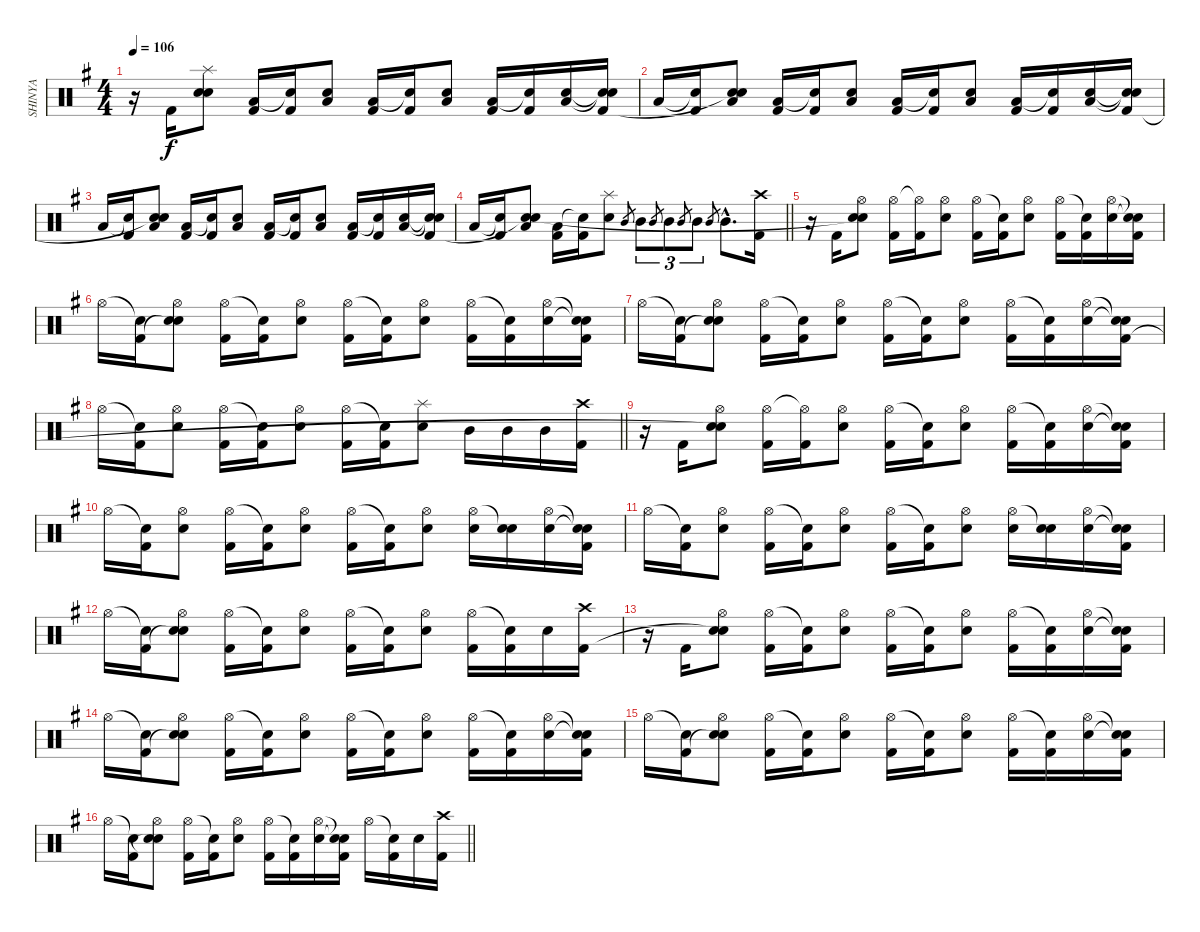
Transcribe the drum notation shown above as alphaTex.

\track ("SHINYA" "SHINYA") {instrument percussion}
\staff {score}
\articulation defaults
\ts (4 4)
\tempo 106
\clef neutral
\ks g
r.16{dy f} "Kick (hit) 2".16 ("Splash (hit)" "Electric Snare (hit)" "Snare (hit)"{t}).8 ("Low Floor Tom (hit)" "Kick (hit) 2").16 ("Snare (hit)"{t} "Kick (hit) 2").16 ("Low Floor Tom (hit)" "Electric Snare (hit)").8 ("Low Floor Tom (hit)" "Kick (hit) 2").16 ("Snare (hit)"{t} "Kick (hit) 2").16 ("Low Floor Tom (hit)" "Electric Snare (hit)").8 ("Low Floor Tom (hit)" "Kick (hit) 2").16 ("Snare (hit)"{t} "Kick (hit) 2").16 ("Low Floor Tom (hit)" "Electric Snare (hit)").16 ("Snare (hit)"{t} "Snare (hit)"{t} "Kick (hit) 2").16 |
"Low Floor Tom (hit)".16 ("Snare (hit)"{t} "Kick (hit) 2").16 ("Low Floor Tom (hit)" "Electric Snare (hit)" "Snare (hit)"{t}).8 ("Low Floor Tom (hit)" "Kick (hit) 2").16 ("Snare (hit)"{t} "Kick (hit) 2").16 ("Low Floor Tom (hit)" "Electric Snare (hit)").8 ("Low Floor Tom (hit)" "Kick (hit) 2").16 ("Snare (hit)"{t} "Kick (hit) 2").16 ("Low Floor Tom (hit)" "Electric Snare (hit)").8 ("Low Floor Tom (hit)" "Kick (hit) 2").16 ("Snare (hit)"{t} "Kick (hit) 2").16 ("Low Floor Tom (hit)" "Electric Snare (hit)").16 ("Snare (hit)"{t} "Snare (hit)"{t} "Kick (hit) 2").16 |
"Low Floor Tom (hit)".16 ("Snare (hit)"{t} "Kick (hit) 2").16 ("Low Floor Tom (hit)" "Electric Snare (hit)" "Snare (hit)"{t}).8 ("Low Floor Tom (hit)" "Kick (hit) 2").16 ("Snare (hit)"{t} "Kick (hit) 2").16 ("Low Floor Tom (hit)" "Electric Snare (hit)").8 ("Low Floor Tom (hit)" "Kick (hit) 2").16 ("Snare (hit)"{t} "Kick (hit) 2").16 ("Low Floor Tom (hit)" "Electric Snare (hit)").8 ("Low Floor Tom (hit)" "Kick (hit) 2").16 ("Snare (hit)"{t} "Kick (hit) 2").16 ("Low Floor Tom (hit)" "Electric Snare (hit)").16 ("Snare (hit)"{t} "Snare (hit)"{t} "Kick (hit) 2").16 |
\barLineRight lightlight "Low Floor Tom (hit)".16
("Snare (hit)"{t} "Kick (hit) 2").16 ("Low Floor Tom (hit)" "Electric Snare (hit)" "Snare (hit)"{t}).8 ("Low Floor Tom (hit)" "Kick (hit) 2").16 ("Snare (hit)"{t} "Kick (hit) 2").16 ("Splash (hit)" "Electric Snare (hit)").8 "Mid Tom (hit)".8{gr} "Mid Tom (hit)".8{tu (3 2)} "Mid Tom (hit)".8{gr} "Mid Tom (hit)".8{tu (3 2)} "Mid Tom (hit)".8{gr} "Mid Tom (hit)".8{tu (3 2)} "Mid Tom (hit)".8{gr} "Mid Tom (hit)"{hac}.8{d} ("Crash high (hit)" "Kick (hit) 2").16 |
r.16 "Kick (hit) 2".16 ("Hi-Hat (open)" "Electric Snare (hit)" "Snare (hit)"{t}).8 ("Hi-Hat (open)" "Kick (hit) 2").16 ("Hi-Hat (open)"{t} "Kick (hit) 2").16 ("Hi-Hat (open)" "Electric Snare (hit)").8 ("Hi-Hat (open)" "Kick (hit) 2").16 ("Snare (hit)"{t} "Kick (hit) 2").16 ("Hi-Hat (open)" "Electric Snare (hit)").8 ("Hi-Hat (open)" "Kick (hit) 2").16 ("Snare (hit)"{t} "Kick (hit) 2").16 ("Hi-Hat (open)" "Electric Snare (hit)").16 ("Snare (hit)"{t} "Snare (hit)"{t} "Kick (hit) 2").16 |
"Hi-Hat (open)".16 ("Snare (hit)"{t} "Kick (hit) 2").16 ("Hi-Hat (open)" "Snare (hit)"{t} "Electric Snare (hit)").8 ("Hi-Hat (open)" "Kick (hit) 2").16 ("Snare (hit)"{t} "Kick (hit) 2").16 ("Hi-Hat (open)" "Electric Snare (hit)").8 ("Hi-Hat (open)" "Kick (hit) 2").16 ("Snare (hit)"{t} "Kick (hit) 2").16 ("Hi-Hat (open)" "Electric Snare (hit)").8 ("Hi-Hat (open)" "Kick (hit) 2").16 ("Snare (hit)"{t} "Kick (hit) 2").16 ("Hi-Hat (open)" "Electric Snare (hit)").16 ("Snare (hit)"{t} "Snare (hit)"{t} "Kick (hit) 2").16 |
"Hi-Hat (open)".16 ("Snare (hit)"{t} "Kick (hit) 2").16 ("Hi-Hat (open)" "Snare (hit)"{t} "Electric Snare (hit)").8 ("Hi-Hat (open)" "Kick (hit) 2").16 ("Snare (hit)"{t} "Kick (hit) 2").16 ("Hi-Hat (open)" "Electric Snare (hit)").8 ("Hi-Hat (open)" "Kick (hit) 2").16 ("Snare (hit)"{t} "Kick (hit) 2").16 ("Hi-Hat (open)" "Electric Snare (hit)").8 ("Hi-Hat (open)" "Kick (hit) 2").16 ("Snare (hit)"{t} "Kick (hit) 2").16 ("Hi-Hat (open)" "Electric Snare (hit)").16 ("Snare (hit)"{t} "Snare (hit)"{t} "Kick (hit) 2").16 |
\barLineRight lightlight "Hi-Hat (open)".16
("Snare (hit)"{t} "Kick (hit) 2").16 ("Hi-Hat (open)" "Electric Snare (hit)").8 ("Hi-Hat (open)" "Kick (hit) 2").16 ("Snare (hit)"{t} "Kick (hit) 2").16 ("Hi-Hat (open)" "Electric Snare (hit)").8 ("Hi-Hat (open)" "Kick (hit) 2").16 ("Snare (hit)"{t} "Kick (hit) 2").16 ("Splash (hit)" "Electric Snare (hit)").8 "Mid Tom (hit)".16 "Mid Tom (hit)".16 "Mid Tom (hit)".16 ("Crash high (hit)" "Kick (hit) 2").16 |
r.16 "Kick (hit) 2".16 ("Hi-Hat (open)" "Electric Snare (hit)" "Snare (hit)"{t}).8 ("Hi-Hat (open)" "Kick (hit) 2").16 ("Hi-Hat (open)"{t} "Kick (hit) 2").16 ("Hi-Hat (open)" "Electric Snare (hit)").8 ("Hi-Hat (open)" "Kick (hit) 2").16 ("Snare (hit)"{t} "Kick (hit) 2").16 ("Hi-Hat (open)" "Electric Snare (hit)").8 ("Hi-Hat (open)" "Kick (hit) 2").16 ("Snare (hit)"{t} "Kick (hit) 2").16 ("Hi-Hat (open)" "Electric Snare (hit)").16 ("Snare (hit)"{t} "Snare (hit)"{t} "Kick (hit) 2").16 |
"Hi-Hat (open)".16 ("Snare (hit)"{t} "Kick (hit) 2").16 ("Hi-Hat (open)" "Electric Snare (hit)").8 ("Hi-Hat (open)" "Kick (hit) 2").16 ("Snare (hit)"{t} "Kick (hit) 2").16 ("Hi-Hat (open)" "Electric Snare (hit)").8 ("Hi-Hat (open)" "Kick (hit) 2").16 ("Snare (hit)"{t} "Kick (hit) 2").16 ("Hi-Hat (open)" "Electric Snare (hit)").8 ("Hi-Hat (open)" "Electric Snare (hit)").16 ("Snare (hit)"{t} "Electric Snare (hit)").16 ("Hi-Hat (open)" "Electric Snare (hit)").16 ("Snare (hit)"{t} "Snare (hit)"{t} "Kick (hit) 2").16 |
"Hi-Hat (open)".16 ("Snare (hit)"{t} "Kick (hit) 2").16 ("Hi-Hat (open)" "Electric Snare (hit)").8 ("Hi-Hat (open)" "Kick (hit) 2").16 ("Snare (hit)"{t} "Kick (hit) 2").16 ("Hi-Hat (open)" "Electric Snare (hit)").8 ("Hi-Hat (open)" "Kick (hit) 2").16 ("Snare (hit)"{t} "Kick (hit) 2").16 ("Hi-Hat (open)" "Electric Snare (hit)").8 ("Hi-Hat (open)" "Electric Snare (hit)").16 ("Snare (hit)"{t} "Electric Snare (hit)").16 ("Hi-Hat (open)" "Electric Snare (hit)").16 ("Snare (hit)"{t} "Snare (hit)"{t} "Kick (hit) 2").16 |
"Hi-Hat (open)".16 ("Snare (hit)"{t} "Kick (hit) 2").16 ("Hi-Hat (open)" "Snare (hit)"{t} "Electric Snare (hit)").8 ("Hi-Hat (open)" "Kick (hit) 2").16 ("Snare (hit)"{t} "Kick (hit) 2").16 ("Hi-Hat (open)" "Electric Snare (hit)").8 ("Hi-Hat (open)" "Kick (hit) 2").16 ("Snare (hit)"{t} "Kick (hit) 2").16 ("Hi-Hat (open)" "Electric Snare (hit)").8 ("Hi-Hat (open)" "Kick (hit) 2").16 ("Snare (hit)"{t} "Kick (hit) 2").16 "Electric Snare (hit)".16 ("Crash high (hit)" "Kick (hit) 2").16 |
r.16 "Kick (hit) 2".16 ("Electric Snare (hit)" "Snare (hit)"{t} "Hi-Hat (open)").8 ("Hi-Hat (open)" "Kick (hit) 2").16 ("Snare (hit)"{t} "Kick (hit) 2").16 ("Hi-Hat (open)" "Electric Snare (hit)").8 ("Hi-Hat (open)" "Kick (hit) 2").16 ("Snare (hit)"{t} "Kick (hit) 2").16 ("Hi-Hat (open)" "Electric Snare (hit)").8 ("Hi-Hat (open)" "Kick (hit) 2").16 ("Snare (hit)"{t} "Kick (hit) 2").16 ("Hi-Hat (open)" "Electric Snare (hit)").16 ("Snare (hit)"{t} "Snare (hit)"{t} "Kick (hit) 2").16 |
"Hi-Hat (open)".16 ("Snare (hit)"{t} "Kick (hit) 2").16 ("Hi-Hat (open)" "Snare (hit)"{t} "Electric Snare (hit)").8 ("Hi-Hat (open)" "Kick (hit) 2").16 ("Snare (hit)"{t} "Kick (hit) 2").16 ("Hi-Hat (open)" "Electric Snare (hit)").8 ("Hi-Hat (open)" "Kick (hit) 2").16 ("Snare (hit)"{t} "Kick (hit) 2").16 ("Hi-Hat (open)" "Electric Snare (hit)").8 ("Hi-Hat (open)" "Kick (hit) 2").16 ("Snare (hit)"{t} "Kick (hit) 2").16 ("Hi-Hat (open)" "Electric Snare (hit)").16 ("Snare (hit)"{t} "Snare (hit)"{t} "Kick (hit) 2").16 |
"Hi-Hat (open)".16 ("Snare (hit)"{t} "Kick (hit) 2").16 ("Hi-Hat (open)" "Snare (hit)"{t} "Electric Snare (hit)").8 ("Hi-Hat (open)" "Kick (hit) 2").16 ("Snare (hit)"{t} "Kick (hit) 2").16 ("Hi-Hat (open)" "Electric Snare (hit)").8 ("Hi-Hat (open)" "Kick (hit) 2").16 ("Snare (hit)"{t} "Kick (hit) 2").16 ("Hi-Hat (open)" "Electric Snare (hit)").8 ("Hi-Hat (open)" "Kick (hit) 2").16 ("Snare (hit)"{t} "Kick (hit) 2").16 ("Hi-Hat (open)" "Electric Snare (hit)").16 ("Snare (hit)"{t} "Snare (hit)"{t} "Kick (hit) 2").16 |
\barLineRight lightlight "Hi-Hat (open)".16
("Snare (hit)"{t} "Kick (hit) 2").16 ("Hi-Hat (open)" "Snare (hit)"{t} "Electric Snare (hit)").8 ("Hi-Hat (open)" "Kick (hit) 2").16 ("Snare (hit)"{t} "Kick (hit) 2").16 ("Hi-Hat (open)" "Electric Snare (hit)").8 ("Hi-Hat (open)" "Kick (hit) 2").16 ("Snare (hit)"{t} "Kick (hit) 2").16 ("Hi-Hat (open)" "Electric Snare (hit)").16 ("Snare (hit)"{t} "Snare (hit)"{t} "Kick (hit) 2").16 "Hi-Hat (open)".16 ("Snare (hit)"{t} "Kick (hit) 2").16 "Electric Snare (hit)".16 ("Crash high (hit)" "Kick (hit) 2").16
